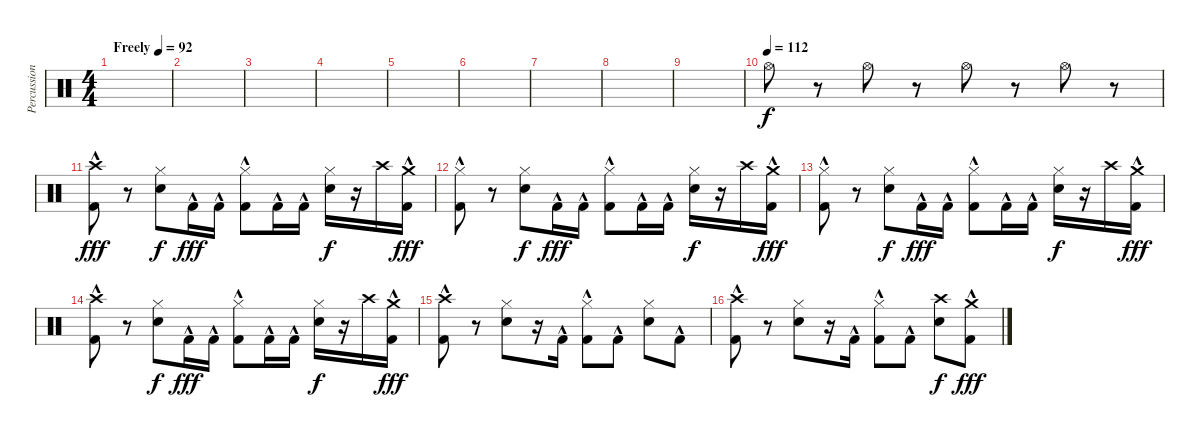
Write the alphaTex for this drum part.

\track ("Percussions" "Percussion") {instrument percussion}
\staff {score}
\articulation defaults
\ts (4 4)
\tempo (92 "Freely")
\clef neutral
\ks c
|
|
|
|
|
|
|
|
|
\tempo (112)
"Hi-Hat (open)".8 r.8 "Hi-Hat (open)".8 r.8 "Hi-Hat (open)".8 r.8 "Hi-Hat (open)".8 r.8 |
("Crash high (hit)" "Kick (hit) 2"{hac}).8{dy fff} r.8 ("Hi-Hat (closed)" "Snare (hit) 2").8{dy f} "Kick (hit) 2"{hac}.16{dy fff} "Kick (hit) 2"{hac}.16 ("Hi-Hat (closed)" "Kick (hit) 2"{hac}).8 "Kick (hit) 2"{hac}.16 "Kick (hit) 2"{hac}.16 ("Hi-Hat (closed)" "Snare (hit) 2").16{dy f} r.16 "Crash high (hit)".16 ("Crash medium (hit)" "Kick (hit) 2"{hac}).16{dy fff} |
("Hi-Hat (closed)" "Kick (hit) 2"{hac}).8 r.8 ("Hi-Hat (closed)" "Snare (hit) 2").8{dy f} "Kick (hit) 2"{hac}.16{dy fff} "Kick (hit) 2"{hac}.16 ("Hi-Hat (closed)" "Kick (hit) 2"{hac}).8 "Kick (hit) 2"{hac}.16 "Kick (hit) 2"{hac}.16 ("Hi-Hat (closed)" "Snare (hit) 2").16{dy f} r.16 "Crash high (hit)".16 ("Crash medium (hit)" "Kick (hit) 2"{hac}).16{dy fff} |
("Hi-Hat (closed)" "Kick (hit) 2"{hac}).8 r.8 ("Hi-Hat (closed)" "Snare (hit) 2").8{dy f} "Kick (hit) 2"{hac}.16{dy fff} "Kick (hit) 2"{hac}.16 ("Hi-Hat (closed)" "Kick (hit) 2"{hac}).8 "Kick (hit) 2"{hac}.16 "Kick (hit) 2"{hac}.16 ("Hi-Hat (closed)" "Snare (hit) 2").16{dy f} r.16 "Crash high (hit)".16 ("Crash medium (hit)" "Kick (hit) 2"{hac}).16{dy fff} |
("Crash high (hit)" "Kick (hit) 2"{hac}).8 r.8 ("Hi-Hat (closed)" "Snare (hit) 2").8{dy f} "Kick (hit) 2"{hac}.16{dy fff} "Kick (hit) 2"{hac}.16 ("Hi-Hat (closed)" "Kick (hit) 2"{hac}).8 "Kick (hit) 2"{hac}.16 "Kick (hit) 2"{hac}.16 ("Hi-Hat (closed)" "Snare (hit) 2").16{dy f} r.16 "Crash high (hit)".16 ("Crash medium (hit)" "Kick (hit) 2"{hac}).16{dy fff} |
("Crash high (hit)" "Kick (hit) 2"{hac}).8 r.8 ("Hi-Hat (closed)" "Snare (hit) 2").8 r.16 "Kick (hit) 2"{hac}.16 ("Hi-Hat (closed)" "Kick (hit) 2"{hac}).8 "Kick (hit) 2"{hac}.8 ("Hi-Hat (closed)" "Snare (hit) 2").8 "Kick (hit) 2"{hac}.8 |
("Crash high (hit)" "Kick (hit) 2"{hac}).8 r.8 ("Hi-Hat (closed)" "Snare (hit) 2").8 r.16 "Kick (hit) 2"{hac}.16 ("Hi-Hat (closed)" "Kick (hit) 2"{hac}).8 "Kick (hit) 2"{hac}.8 ("Crash high (hit)" "Snare (hit) 2").8{dy f} ("Crash medium (hit)" "Kick (hit) 2"{hac}).8{dy fff}
